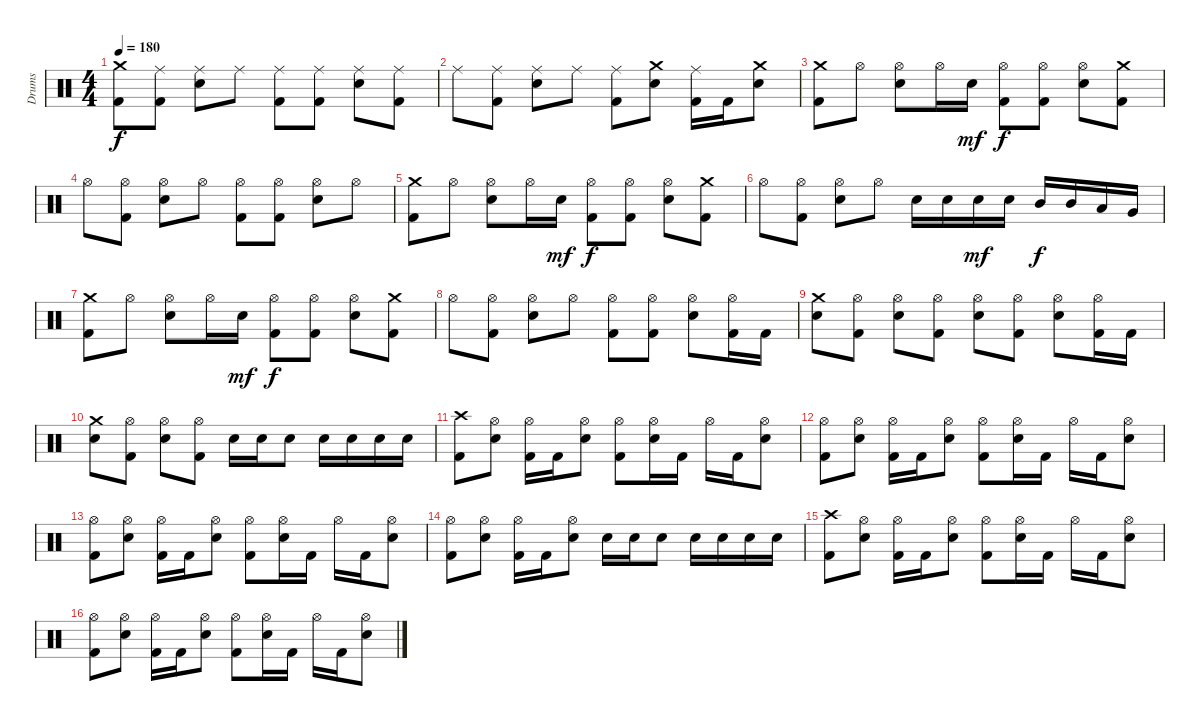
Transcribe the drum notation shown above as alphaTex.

\track ("Drums" "Drums") {instrument percussion}
\staff {score}
\articulation defaults
\ts (4 4)
\tempo 180
\clef neutral
\ks c
("Crash medium (hit)" "Kick (hit) 2").8{dy f} ("Ride (middle)" "Kick (hit) 2").8 ("Ride (middle)" "Electric Snare (hit)").8 "Ride (middle)".8 ("Ride (middle)" "Kick (hit) 2").8 ("Ride (middle)" "Kick (hit) 2").8 ("Ride (middle)" "Electric Snare (hit)").8 ("Ride (middle)" "Kick (hit) 2").8 |
"Ride (middle)".8 ("Ride (middle)" "Kick (hit) 2").8 ("Ride (middle)" "Electric Snare (hit)").8 "Ride (middle)".8 ("Ride (middle)" "Kick (hit) 2").8 ("Crash medium (hit)" "Electric Snare (hit)").8 ("Ride (middle)" "Kick (hit) 2").16 "Kick (hit) 2".16 ("Crash medium (hit)" "Electric Snare (hit)").8 |
("Crash medium (hit)" "Kick (hit) 2").8 "Hi-Hat (open)".8 ("Hi-Hat (open)" "Electric Snare (hit)").8 "Hi-Hat (open)".16 "Electric Snare (hit)".16{dy mf} ("Hi-Hat (open)" "Kick (hit) 2").8{dy f} ("Hi-Hat (open)" "Kick (hit) 2").8 ("Hi-Hat (open)" "Electric Snare (hit)").8 ("Crash medium (hit)" "Kick (hit) 2").8 |
"Hi-Hat (open)".8 ("Hi-Hat (open)" "Kick (hit) 2").8 ("Hi-Hat (open)" "Electric Snare (hit)").8 "Hi-Hat (open)".8 ("Hi-Hat (open)" "Kick (hit) 2").8 ("Hi-Hat (open)" "Kick (hit) 2").8 ("Hi-Hat (open)" "Electric Snare (hit)").8 "Hi-Hat (open)".8 |
("Crash medium (hit)" "Kick (hit) 2").8 "Hi-Hat (open)".8 ("Hi-Hat (open)" "Electric Snare (hit)").8 "Hi-Hat (open)".16 "Electric Snare (hit)".16{dy mf} ("Hi-Hat (open)" "Kick (hit) 2").8{dy f} ("Hi-Hat (open)" "Kick (hit) 2").8 ("Hi-Hat (open)" "Electric Snare (hit)").8 ("Crash medium (hit)" "Kick (hit) 2").8 |
"Hi-Hat (open)".8 ("Hi-Hat (open)" "Kick (hit) 2").8 ("Hi-Hat (open)" "Electric Snare (hit)").8 "Hi-Hat (open)".8 "Electric Snare (hit)".16 "Electric Snare (hit)".16 "Electric Snare (hit)".16{dy mf} "Electric Snare (hit)".16 "Mid Tom (hit)".16{dy f} "Mid Tom (hit)".16 "Low Tom (hit)".16 "Very Low Tom (hit)".16 |
("Crash medium (hit)" "Kick (hit) 2").8 "Hi-Hat (open)".8 ("Hi-Hat (open)" "Electric Snare (hit)").8 "Hi-Hat (open)".16 "Electric Snare (hit)".16{dy mf} ("Hi-Hat (open)" "Kick (hit) 2").8{dy f} ("Hi-Hat (open)" "Kick (hit) 2").8 ("Hi-Hat (open)" "Electric Snare (hit)").8 ("Crash medium (hit)" "Kick (hit) 2").8 |
"Hi-Hat (open)".8 ("Hi-Hat (open)" "Kick (hit) 2").8 ("Hi-Hat (open)" "Electric Snare (hit)").8 "Hi-Hat (open)".8 ("Hi-Hat (open)" "Kick (hit) 2").8 ("Hi-Hat (open)" "Kick (hit) 2").8 ("Hi-Hat (open)" "Electric Snare (hit)").8 ("Hi-Hat (open)" "Kick (hit) 2").16 "Kick (hit) 2".16 |
("Crash medium (hit)" "Electric Snare (hit)").8 ("Hi-Hat (open)" "Kick (hit) 2").8 ("Hi-Hat (open)" "Electric Snare (hit)").8 ("Hi-Hat (open)" "Kick (hit) 2").8 ("Hi-Hat (open)" "Electric Snare (hit)").8 ("Hi-Hat (open)" "Kick (hit) 2").8 ("Hi-Hat (open)" "Electric Snare (hit)").8 ("Hi-Hat (open)" "Kick (hit) 2").16 "Kick (hit) 2".16 |
("Crash medium (hit)" "Electric Snare (hit)").8 ("Hi-Hat (open)" "Kick (hit) 2").8 ("Hi-Hat (open)" "Electric Snare (hit)").8 ("Hi-Hat (open)" "Kick (hit) 2").8 "Electric Snare (hit)".16 "Electric Snare (hit)".16 "Electric Snare (hit)".8 "Electric Snare (hit)".16 "Electric Snare (hit)".16 "Electric Snare (hit)".16 "Electric Snare (hit)".16 |
("Crash high (hit)" "Kick (hit) 2").8 ("Hi-Hat (open)" "Electric Snare (hit)").8 ("Hi-Hat (open)" "Kick (hit) 2").16 "Kick (hit) 2".16 ("Hi-Hat (open)" "Electric Snare (hit)").8 ("Hi-Hat (open)" "Kick (hit) 2").8 ("Hi-Hat (open)" "Electric Snare (hit)").16 "Kick (hit) 2".16 "Hi-Hat (open)".16 "Kick (hit) 2".16 ("Hi-Hat (open)" "Electric Snare (hit)").8 |
("Hi-Hat (open)" "Kick (hit) 2").8 ("Hi-Hat (open)" "Electric Snare (hit)").8 ("Hi-Hat (open)" "Kick (hit) 2").16 "Kick (hit) 2".16 ("Hi-Hat (open)" "Electric Snare (hit)").8 ("Hi-Hat (open)" "Kick (hit) 2").8 ("Hi-Hat (open)" "Electric Snare (hit)").16 "Kick (hit) 2".16 "Hi-Hat (open)".16 "Kick (hit) 2".16 ("Hi-Hat (open)" "Electric Snare (hit)").8 |
("Hi-Hat (open)" "Kick (hit) 2").8 ("Hi-Hat (open)" "Electric Snare (hit)").8 ("Hi-Hat (open)" "Kick (hit) 2").16 "Kick (hit) 2".16 ("Hi-Hat (open)" "Electric Snare (hit)").8 ("Hi-Hat (open)" "Kick (hit) 2").8 ("Hi-Hat (open)" "Electric Snare (hit)").16 "Kick (hit) 2".16 "Hi-Hat (open)".16 "Kick (hit) 2".16 ("Hi-Hat (open)" "Electric Snare (hit)").8 |
("Hi-Hat (open)" "Kick (hit) 2").8 ("Hi-Hat (open)" "Electric Snare (hit)").8 ("Hi-Hat (open)" "Kick (hit) 2").16 "Kick (hit) 2".16 ("Hi-Hat (open)" "Electric Snare (hit)").8 "Electric Snare (hit)".16 "Electric Snare (hit)".16 "Electric Snare (hit)".8 "Electric Snare (hit)".16 "Electric Snare (hit)".16 "Electric Snare (hit)".16 "Electric Snare (hit)".16 |
("Crash high (hit)" "Kick (hit) 2").8 ("Hi-Hat (open)" "Electric Snare (hit)").8 ("Hi-Hat (open)" "Kick (hit) 2").16 "Kick (hit) 2".16 ("Hi-Hat (open)" "Electric Snare (hit)").8 ("Hi-Hat (open)" "Kick (hit) 2").8 ("Hi-Hat (open)" "Electric Snare (hit)").16 "Kick (hit) 2".16 "Hi-Hat (open)".16 "Kick (hit) 2".16 ("Hi-Hat (open)" "Electric Snare (hit)").8 |
("Hi-Hat (open)" "Kick (hit) 2").8 ("Hi-Hat (open)" "Electric Snare (hit)").8 ("Hi-Hat (open)" "Kick (hit) 2").16 "Kick (hit) 2".16 ("Hi-Hat (open)" "Electric Snare (hit)").8 ("Hi-Hat (open)" "Kick (hit) 2").8 ("Hi-Hat (open)" "Electric Snare (hit)").16 "Kick (hit) 2".16 "Hi-Hat (open)".16 "Kick (hit) 2".16 ("Hi-Hat (open)" "Electric Snare (hit)").8
